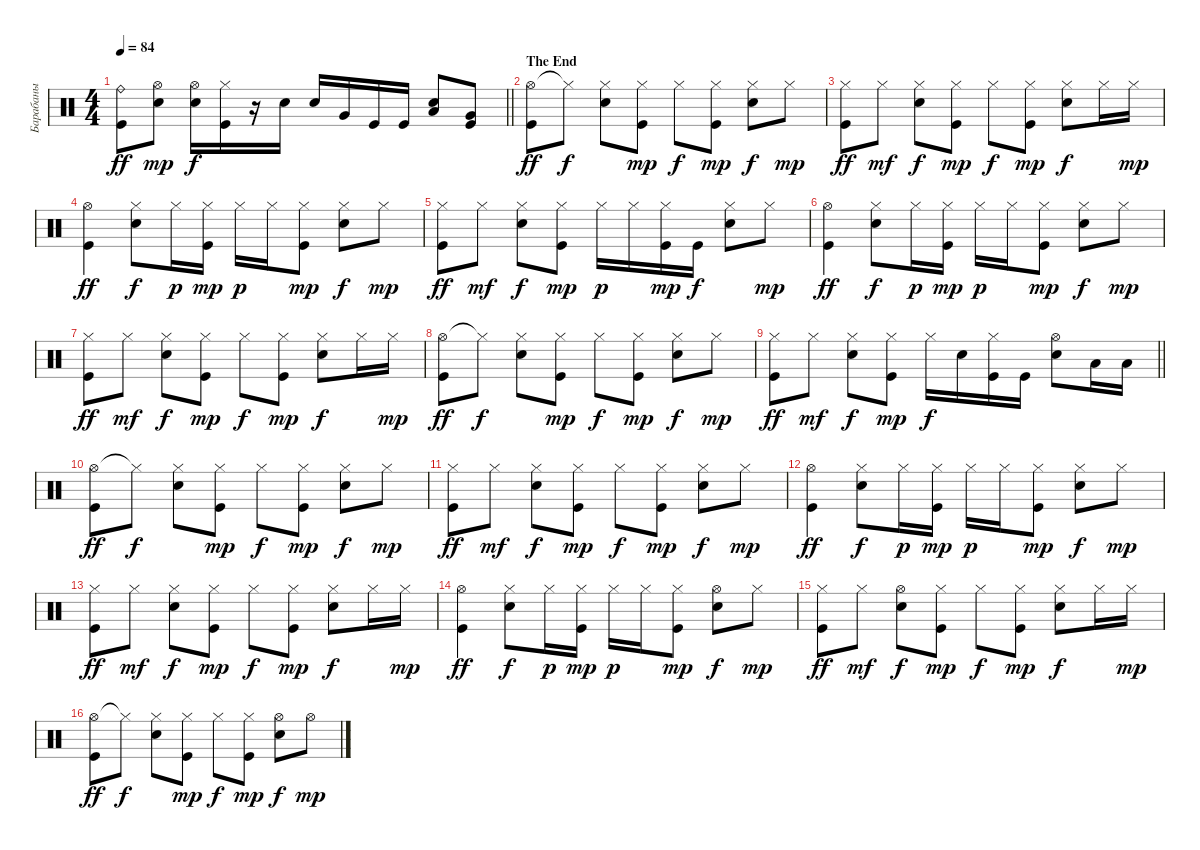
\track ("Барабаны" "Барабаны") {instrument percussion}
\staff {score}
\articulation defaults
\ts (4 4)
\tempo 84
\clef neutral
\barLineRight lightlight
\ks c
("Ride (bell)" "Kick (hit)").8{dy ff} ("Hi-Hat (open)" "Electric Snare (hit)").8{dy mp} ("Hi-Hat (open)" "Electric Snare (hit)").16{dy f} ("Hi-Hat (closed)" "Kick (hit)").16 r.16 "Snare (hit) 2".16 "Electric Snare (hit)".16 "Very Low Tom (hit)".16 "Kick (hit)".16 "Kick (hit)".16 ("Low Tom (hit)" "Electric Snare (hit)").8 ("Very Low Tom (hit)" "Kick (hit)").8 |
\section ("" "The End")
("Hi-Hat (open)" "Kick (hit)").8{dy ff} "Hi-Hat (closed)"{t}.8{dy f} ("Hi-Hat (closed)" "Electric Snare (hit)").8 ("Hi-Hat (closed)" "Kick (hit)").8{dy mp} "Hi-Hat (closed)".8{dy f} ("Hi-Hat (closed)" "Kick (hit)").8{dy mp} ("Hi-Hat (closed)" "Electric Snare (hit)").8{dy f} "Hi-Hat (closed)".8{dy mp} |
("Hi-Hat (closed)" "Kick (hit)").8{dy ff} "Hi-Hat (closed)".8{dy mf} ("Hi-Hat (closed)" "Electric Snare (hit)").8{dy f} ("Hi-Hat (closed)" "Kick (hit)").8{dy mp} "Hi-Hat (closed)".8{dy f} ("Hi-Hat (closed)" "Kick (hit)").8{dy mp} ("Hi-Hat (closed)" "Electric Snare (hit)").8{dy f} "Hi-Hat (closed)".16 "Hi-Hat (closed)".16{dy mp} |
("Hi-Hat (open)" "Kick (hit)").4{dy ff} ("Hi-Hat (closed)" "Electric Snare (hit)").8{dy f} "Hi-Hat (closed)".16{dy p} ("Hi-Hat (closed)" "Kick (hit)").16{dy mp} "Hi-Hat (closed)".16{dy p} "Hi-Hat (closed)".16 ("Hi-Hat (closed)" "Kick (hit)").8{dy mp} ("Hi-Hat (closed)" "Electric Snare (hit)").8{dy f} "Hi-Hat (closed)".8{dy mp} |
("Hi-Hat (closed)" "Kick (hit)").8{dy ff} "Hi-Hat (closed)".8{dy mf} ("Hi-Hat (closed)" "Electric Snare (hit)").8{dy f} ("Hi-Hat (closed)" "Kick (hit)").8{dy mp} "Hi-Hat (closed)".16{dy p} "Hi-Hat (closed)".16 ("Hi-Hat (closed)" "Kick (hit)").16{dy mp} "Kick (hit)".16{dy f} ("Hi-Hat (closed)" "Electric Snare (hit)").8 "Hi-Hat (closed)".8{dy mp} |
("Hi-Hat (open)" "Kick (hit)").4{dy ff} ("Hi-Hat (closed)" "Electric Snare (hit)").8{dy f} "Hi-Hat (closed)".16{dy p} ("Hi-Hat (closed)" "Kick (hit)").16{dy mp} "Hi-Hat (closed)".16{dy p} "Hi-Hat (closed)".16 ("Hi-Hat (closed)" "Kick (hit)").8{dy mp} ("Hi-Hat (closed)" "Electric Snare (hit)").8{dy f} "Hi-Hat (closed)".8{dy mp} |
("Hi-Hat (closed)" "Kick (hit)").8{dy ff} "Hi-Hat (closed)".8{dy mf} ("Hi-Hat (closed)" "Electric Snare (hit)").8{dy f} ("Hi-Hat (closed)" "Kick (hit)").8{dy mp} "Hi-Hat (closed)".8{dy f} ("Hi-Hat (closed)" "Kick (hit)").8{dy mp} ("Hi-Hat (closed)" "Electric Snare (hit)").8{dy f} "Hi-Hat (closed)".16 "Hi-Hat (closed)".16{dy mp} |
("Hi-Hat (open)" "Kick (hit)").8{dy ff} "Hi-Hat (closed)"{t}.8{dy f} ("Hi-Hat (closed)" "Electric Snare (hit)").8 ("Hi-Hat (closed)" "Kick (hit)").8{dy mp} "Hi-Hat (closed)".8{dy f} ("Hi-Hat (closed)" "Kick (hit)").8{dy mp} ("Hi-Hat (closed)" "Electric Snare (hit)").8{dy f} "Hi-Hat (closed)".8{dy mp} |
\barLineRight lightlight
("Hi-Hat (closed)" "Kick (hit)").8{dy ff} "Hi-Hat (closed)".8{dy mf} ("Hi-Hat (closed)" "Electric Snare (hit)").8{dy f} ("Hi-Hat (closed)" "Kick (hit)").8{dy mp} "Hi-Hat (closed)".16{dy f} "Electric Snare (hit)".16 ("Hi-Hat (closed)" "Kick (hit)").16 "Kick (hit)".16 ("Hi-Hat (open)" "Electric Snare (hit)").8 "Low Tom (hit)".16 "Low Tom (hit)".16 |
("Hi-Hat (open)" "Kick (hit)").8{dy ff} "Hi-Hat (closed)"{t}.8{dy f} ("Hi-Hat (closed)" "Electric Snare (hit)").8 ("Hi-Hat (closed)" "Kick (hit)").8{dy mp} "Hi-Hat (closed)".8{dy f} ("Hi-Hat (closed)" "Kick (hit)").8{dy mp} ("Hi-Hat (closed)" "Electric Snare (hit)").8{dy f} "Hi-Hat (closed)".8{dy mp} |
("Hi-Hat (closed)" "Kick (hit)").8{dy ff} "Hi-Hat (closed)".8{dy mf} ("Hi-Hat (closed)" "Electric Snare (hit)").8{dy f} ("Hi-Hat (closed)" "Kick (hit)").8{dy mp} "Hi-Hat (closed)".8{dy f} ("Hi-Hat (closed)" "Kick (hit)").8{dy mp} ("Hi-Hat (closed)" "Electric Snare (hit)").8{dy f} "Hi-Hat (closed)".8{dy mp} |
("Hi-Hat (open)" "Kick (hit)").4{dy ff} ("Hi-Hat (closed)" "Electric Snare (hit)").8{dy f} "Hi-Hat (closed)".16{dy p} ("Hi-Hat (closed)" "Kick (hit)").16{dy mp} "Hi-Hat (closed)".16{dy p} "Hi-Hat (closed)".16 ("Hi-Hat (closed)" "Kick (hit)").8{dy mp} ("Hi-Hat (closed)" "Electric Snare (hit)").8{dy f} "Hi-Hat (closed)".8{dy mp} |
("Hi-Hat (closed)" "Kick (hit)").8{dy ff} "Hi-Hat (closed)".8{dy mf} ("Hi-Hat (closed)" "Electric Snare (hit)").8{dy f} ("Hi-Hat (closed)" "Kick (hit)").8{dy mp} "Hi-Hat (closed)".8{dy f} ("Hi-Hat (closed)" "Kick (hit)").8{dy mp} ("Hi-Hat (closed)" "Electric Snare (hit)").8{dy f} "Hi-Hat (closed)".16 "Hi-Hat (closed)".16{dy mp} |
("Hi-Hat (open)" "Kick (hit)").4{dy ff} ("Hi-Hat (closed)" "Electric Snare (hit)").8{dy f} "Hi-Hat (closed)".16{dy p} ("Hi-Hat (closed)" "Kick (hit)").16{dy mp} "Hi-Hat (closed)".16{dy p} "Hi-Hat (closed)".16 ("Hi-Hat (closed)" "Kick (hit)").8{dy mp} ("Hi-Hat (open)" "Electric Snare (hit)").8{dy f} "Hi-Hat (closed)".8{dy mp} |
("Hi-Hat (closed)" "Kick (hit)").8{dy ff} "Hi-Hat (closed)".8{dy mf} ("Hi-Hat (open)" "Electric Snare (hit)").8{dy f} ("Hi-Hat (closed)" "Kick (hit)").8{dy mp} "Hi-Hat (closed)".8{dy f} ("Hi-Hat (closed)" "Kick (hit)").8{dy mp} ("Hi-Hat (closed)" "Electric Snare (hit)").8{dy f} "Hi-Hat (closed)".16 "Hi-Hat (closed)".16{dy mp} |
("Hi-Hat (open)" "Kick (hit)").8{dy ff} "Hi-Hat (closed)"{t}.8{dy f} ("Hi-Hat (closed)" "Electric Snare (hit)").8 ("Hi-Hat (closed)" "Kick (hit)").8{dy mp} "Hi-Hat (closed)".8{dy f} ("Hi-Hat (closed)" "Kick (hit)").8{dy mp} ("Hi-Hat (open)" "Electric Snare (hit)").8{dy f} "Hi-Hat (open)".8{dy mp}
